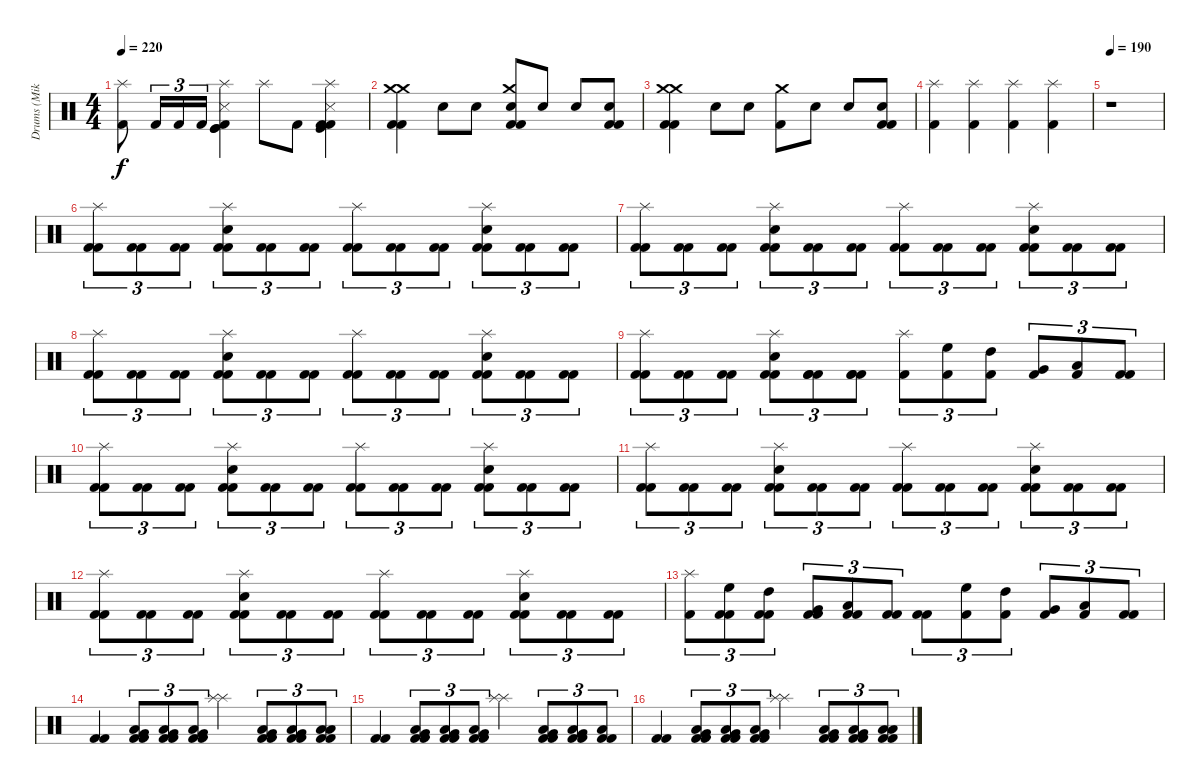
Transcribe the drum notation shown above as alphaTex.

\track ("Drums (Mike Justian)" "Drums (Mik") {instrument percussion}
\staff {score}
\articulation defaults
\ts (4 4)
\tempo 220
\clef neutral
\ks c
("Splash (hit)" "Kick (hit) 2").8{dy f} "Kick (hit) 2".16{tu (3 2)} "Kick (hit) 2".16{tu (3 2)} "Kick (hit) 2".16{tu (3 2)} ("Splash (hit)" "Snare (side stick) 3" "Kick (hit) 2" "Kick (hit)" "Kick (hit)").4 "Splash (hit)".8 "Kick (hit) 2".8 ("Splash (hit)" "Snare (side stick) 3" "Kick (hit)" "Kick (hit) 2" "Kick (hit) 2").4 |
("Crash medium (hit)" "Kick (hit) 2" "Crash medium (hit)" "Kick (hit) 2").4 "Electric Snare (hit)".8 "Electric Snare (hit)".8 ("Crash medium (hit)" "Kick (hit) 2" "Electric Snare (hit)" "Kick (hit) 2").8 "Electric Snare (hit)".8 "Electric Snare (hit)".8 ("Electric Snare (hit)" "Kick (hit) 2" "Kick (hit) 2").8 |
("Crash medium (hit)" "Kick (hit) 2" "Crash medium (hit)" "Kick (hit) 2").4 "Electric Snare (hit)".8 "Electric Snare (hit)".8 ("Crash medium (hit)" "Kick (hit) 2").8 "Electric Snare (hit)".8 "Electric Snare (hit)".8 ("Electric Snare (hit)" "Kick (hit) 2" "Kick (hit) 2").8 |
("Splash (hit)" "Kick (hit) 2").4 ("Splash (hit)" "Kick (hit) 2").4 ("Splash (hit)" "Kick (hit) 2").4 ("Splash (hit)" "Kick (hit) 2").4 |
\tempo 190
r.1 |
("Splash (hit)" "Kick (hit) 2" "Kick (hit) 2").8{tu (3 2)} ("Kick (hit) 2" "Kick (hit) 2").8{tu (3 2)} ("Kick (hit) 2" "Kick (hit) 2").8{tu (3 2)} ("Splash (hit)" "Electric Snare (hit)" "Kick (hit) 2" "Kick (hit) 2").8{tu (3 2)} ("Kick (hit) 2" "Kick (hit) 2").8{tu (3 2)} ("Kick (hit) 2" "Kick (hit) 2").8{tu (3 2)} ("Splash (hit)" "Kick (hit) 2" "Kick (hit) 2").8{tu (3 2)} ("Kick (hit) 2" "Kick (hit) 2").8{tu (3 2)} ("Kick (hit) 2" "Kick (hit) 2").8{tu (3 2)} ("Splash (hit)" "Electric Snare (hit)" "Kick (hit) 2" "Kick (hit) 2").8{tu (3 2)} ("Kick (hit) 2" "Kick (hit) 2").8{tu (3 2)} ("Kick (hit) 2" "Kick (hit) 2").8{tu (3 2)} |
("Splash (hit)" "Kick (hit) 2" "Kick (hit) 2").8{tu (3 2)} ("Kick (hit) 2" "Kick (hit) 2").8{tu (3 2)} ("Kick (hit) 2" "Kick (hit) 2").8{tu (3 2)} ("Splash (hit)" "Electric Snare (hit)" "Kick (hit) 2" "Kick (hit) 2").8{tu (3 2)} ("Kick (hit) 2" "Kick (hit) 2").8{tu (3 2)} ("Kick (hit) 2" "Kick (hit) 2").8{tu (3 2)} ("Splash (hit)" "Kick (hit) 2" "Kick (hit) 2").8{tu (3 2)} ("Kick (hit) 2" "Kick (hit) 2").8{tu (3 2)} ("Kick (hit) 2" "Kick (hit) 2").8{tu (3 2)} ("Splash (hit)" "Electric Snare (hit)" "Kick (hit) 2" "Kick (hit) 2").8{tu (3 2)} ("Kick (hit) 2" "Kick (hit) 2").8{tu (3 2)} ("Kick (hit) 2" "Kick (hit) 2").8{tu (3 2)} |
("Splash (hit)" "Kick (hit) 2" "Kick (hit) 2").8{tu (3 2)} ("Kick (hit) 2" "Kick (hit) 2").8{tu (3 2)} ("Kick (hit) 2" "Kick (hit) 2").8{tu (3 2)} ("Splash (hit)" "Electric Snare (hit)" "Kick (hit) 2" "Kick (hit) 2").8{tu (3 2)} ("Kick (hit) 2" "Kick (hit) 2").8{tu (3 2)} ("Kick (hit) 2" "Kick (hit) 2").8{tu (3 2)} ("Splash (hit)" "Kick (hit) 2" "Kick (hit) 2").8{tu (3 2)} ("Kick (hit) 2" "Kick (hit) 2").8{tu (3 2)} ("Kick (hit) 2" "Kick (hit) 2").8{tu (3 2)} ("Splash (hit)" "Electric Snare (hit)" "Kick (hit) 2" "Kick (hit) 2").8{tu (3 2)} ("Kick (hit) 2" "Kick (hit) 2").8{tu (3 2)} ("Kick (hit) 2" "Kick (hit) 2").8{tu (3 2)} |
("Splash (hit)" "Kick (hit) 2" "Kick (hit) 2").8{tu (3 2)} ("Kick (hit) 2" "Kick (hit) 2").8{tu (3 2)} ("Kick (hit) 2" "Kick (hit) 2").8{tu (3 2)} ("Splash (hit)" "Electric Snare (hit)" "Kick (hit) 2" "Kick (hit) 2").8{tu (3 2)} ("Kick (hit) 2" "Kick (hit) 2" "Kick (hit) 2").8{tu (3 2)} ("Kick (hit) 2" "Kick (hit) 2" "Kick (hit) 2").8{tu (3 2)} ("Splash (hit)" "Kick (hit) 2").8{tu (3 2)} ("High Floor Tom (hit)" "Kick (hit) 2").8{tu (3 2)} ("High Tom (hit)" "Kick (hit) 2").8{tu (3 2)} ("Very Low Tom (hit)" "Kick (hit) 2").8{tu (3 2)} ("Low Floor Tom (hit)" "Kick (hit) 2").8{tu (3 2)} ("Kick (hit) 2" "Kick (hit) 2").8{tu (3 2)} |
("Splash (hit)" "Kick (hit) 2" "Kick (hit) 2").8{tu (3 2)} ("Kick (hit) 2" "Kick (hit) 2").8{tu (3 2)} ("Kick (hit) 2" "Kick (hit) 2").8{tu (3 2)} ("Splash (hit)" "Electric Snare (hit)" "Kick (hit) 2" "Kick (hit) 2").8{tu (3 2)} ("Kick (hit) 2" "Kick (hit) 2").8{tu (3 2)} ("Kick (hit) 2" "Kick (hit) 2").8{tu (3 2)} ("Splash (hit)" "Kick (hit) 2" "Kick (hit) 2").8{tu (3 2)} ("Kick (hit) 2" "Kick (hit) 2").8{tu (3 2)} ("Kick (hit) 2" "Kick (hit) 2").8{tu (3 2)} ("Splash (hit)" "Electric Snare (hit)" "Kick (hit) 2" "Kick (hit) 2").8{tu (3 2)} ("Kick (hit) 2" "Kick (hit) 2").8{tu (3 2)} ("Kick (hit) 2" "Kick (hit) 2").8{tu (3 2)} |
("Splash (hit)" "Kick (hit) 2" "Kick (hit) 2").8{tu (3 2)} ("Kick (hit) 2" "Kick (hit) 2").8{tu (3 2)} ("Kick (hit) 2" "Kick (hit) 2").8{tu (3 2)} ("Splash (hit)" "Electric Snare (hit)" "Kick (hit) 2" "Kick (hit) 2").8{tu (3 2)} ("Kick (hit) 2" "Kick (hit) 2").8{tu (3 2)} ("Kick (hit) 2" "Kick (hit) 2").8{tu (3 2)} ("Splash (hit)" "Kick (hit) 2" "Kick (hit) 2").8{tu (3 2)} ("Kick (hit) 2" "Kick (hit) 2").8{tu (3 2)} ("Kick (hit) 2" "Kick (hit) 2").8{tu (3 2)} ("Splash (hit)" "Electric Snare (hit)" "Kick (hit) 2" "Kick (hit) 2").8{tu (3 2)} ("Kick (hit) 2" "Kick (hit) 2").8{tu (3 2)} ("Kick (hit) 2" "Kick (hit) 2").8{tu (3 2)} |
("Splash (hit)" "Kick (hit) 2" "Kick (hit) 2").8{tu (3 2)} ("Kick (hit) 2" "Kick (hit) 2").8{tu (3 2)} ("Kick (hit) 2" "Kick (hit) 2").8{tu (3 2)} ("Splash (hit)" "Electric Snare (hit)" "Kick (hit) 2" "Kick (hit) 2").8{tu (3 2)} ("Kick (hit) 2" "Kick (hit) 2").8{tu (3 2)} ("Kick (hit) 2" "Kick (hit) 2").8{tu (3 2)} ("Splash (hit)" "Kick (hit) 2" "Kick (hit) 2").8{tu (3 2)} ("Kick (hit) 2" "Kick (hit) 2").8{tu (3 2)} ("Kick (hit) 2" "Kick (hit) 2").8{tu (3 2)} ("Splash (hit)" "Electric Snare (hit)" "Kick (hit) 2" "Kick (hit) 2").8{tu (3 2)} ("Kick (hit) 2" "Kick (hit) 2").8{tu (3 2)} ("Kick (hit) 2" "Kick (hit) 2").8{tu (3 2)} |
("Splash (hit)" "Kick (hit) 2").8{tu (3 2)} ("High Floor Tom (hit)" "Kick (hit) 2" "Kick (hit) 2").8{tu (3 2)} ("High Tom (hit)" "Kick (hit) 2" "Kick (hit) 2").8{tu (3 2)} ("Very Low Tom (hit)" "Kick (hit) 2" "Kick (hit) 2").8{tu (3 2)} ("Low Floor Tom (hit)" "Kick (hit) 2" "Kick (hit) 2").8{tu (3 2)} ("Kick (hit) 2" "Kick (hit) 2").8{tu (3 2)} ("Kick (hit) 2" "Kick (hit) 2").8{tu (3 2)} ("High Floor Tom (hit)" "Kick (hit) 2").8{tu (3 2)} ("High Tom (hit)" "Kick (hit) 2").8{tu (3 2)} ("Very Low Tom (hit)" "Kick (hit) 2").8{tu (3 2)} ("Low Floor Tom (hit)" "Kick (hit) 2").8{tu (3 2)} ("Kick (hit) 2" "Kick (hit) 2").8{tu (3 2)} |
("Kick (hit) 2" "Kick (hit) 2").4 ("Low Tom (hit)" "Very Low Tom (hit)" "Kick (hit) 2" "Kick (hit) 2").8{tu (3 2)} ("Very Low Tom (hit)" "Low Floor Tom (hit)" "Kick (hit) 2" "Kick (hit) 2").8{tu (3 2)} ("Low Tom (hit)" "Very Low Tom (hit)" "Kick (hit) 2" "Kick (hit) 2").8{tu (3 2)} ("Splash (hit)" "Splash (hit)").4 ("Very Low Tom (hit)" "Low Floor Tom (hit)" "Kick (hit) 2" "Kick (hit) 2").8{tu (3 2)} ("Low Tom (hit)" "Very Low Tom (hit)" "Kick (hit) 2" "Kick (hit) 2").8{tu (3 2)} ("Low Tom (hit)" "Low Tom (hit)" "Kick (hit) 2" "Kick (hit) 2").8{tu (3 2)} |
("Kick (hit) 2" "Kick (hit) 2").4 ("Low Tom (hit)" "Very Low Tom (hit)" "Kick (hit) 2" "Kick (hit) 2").8{tu (3 2)} ("Very Low Tom (hit)" "Low Floor Tom (hit)" "Kick (hit) 2" "Kick (hit) 2").8{tu (3 2)} ("Low Tom (hit)" "Very Low Tom (hit)" "Kick (hit) 2" "Kick (hit) 2").8{tu (3 2)} ("Splash (hit)" "Splash (hit)").4 ("Very Low Tom (hit)" "Low Floor Tom (hit)" "Kick (hit) 2" "Kick (hit) 2").8{tu (3 2)} ("Low Tom (hit)" "Very Low Tom (hit)" "Kick (hit) 2" "Kick (hit) 2").8{tu (3 2)} ("Low Tom (hit)" "Kick (hit) 2" "Kick (hit) 2").8{tu (3 2)} |
("Kick (hit) 2" "Kick (hit) 2").4 ("Low Tom (hit)" "Very Low Tom (hit)" "Kick (hit) 2" "Kick (hit) 2").8{tu (3 2)} ("Very Low Tom (hit)" "Low Floor Tom (hit)" "Kick (hit) 2" "Kick (hit) 2").8{tu (3 2)} ("Low Tom (hit)" "Very Low Tom (hit)" "Kick (hit) 2" "Kick (hit) 2").8{tu (3 2)} ("Splash (hit)" "Splash (hit)").4 ("Very Low Tom (hit)" "Low Floor Tom (hit)" "Kick (hit) 2" "Kick (hit) 2").8{tu (3 2)} ("Low Tom (hit)" "Very Low Tom (hit)" "Kick (hit) 2" "Kick (hit) 2").8{tu (3 2)} ("Low Tom (hit)" "Low Tom (hit)" "Kick (hit) 2" "Kick (hit) 2").8{tu (3 2)}
